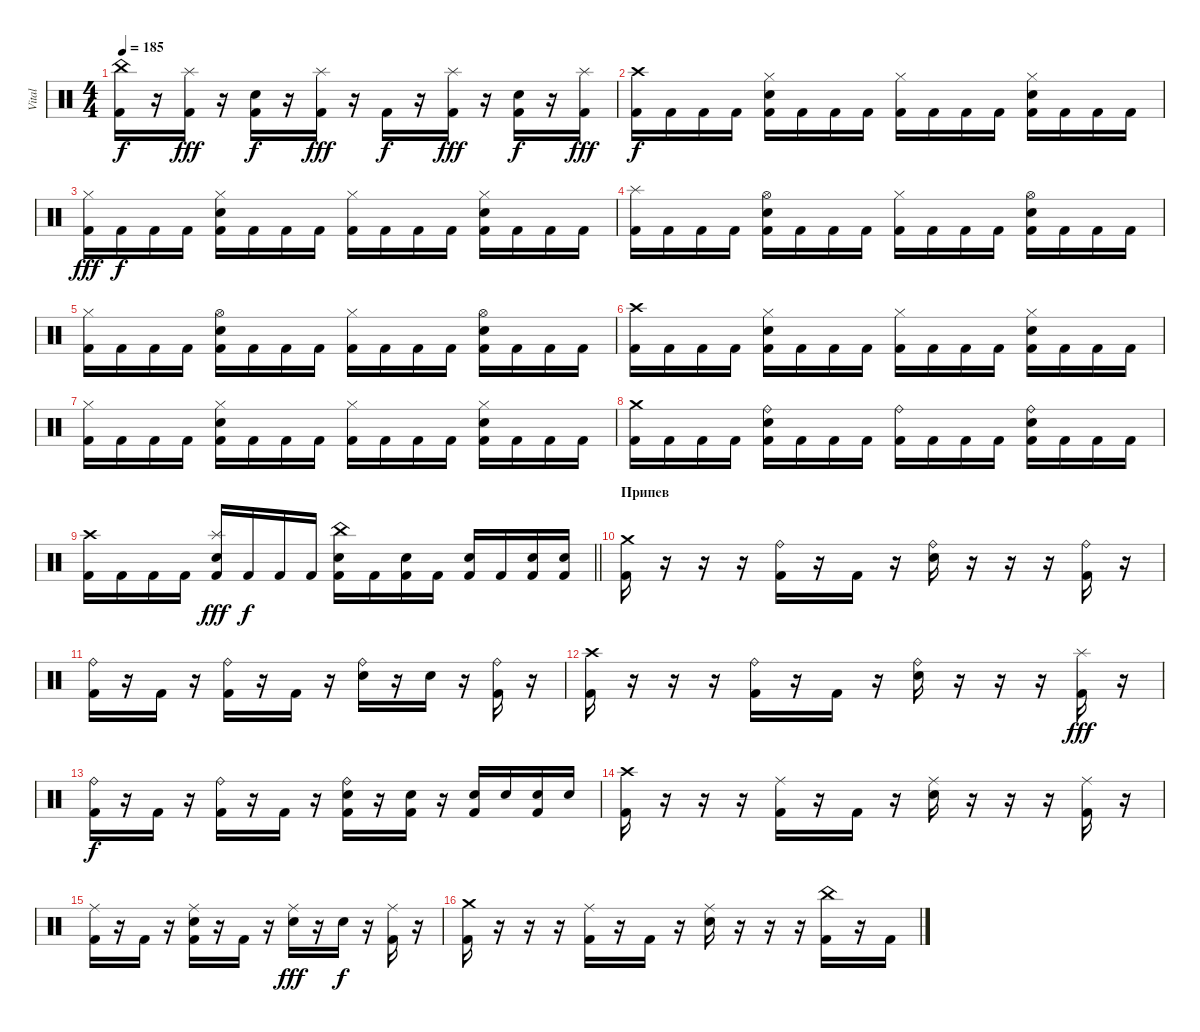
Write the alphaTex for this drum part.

\track ("Vital" "Vital") {instrument percussion}
\staff {score}
\articulation defaults
\ts (4 4)
\tempo 185
\clef neutral
\ks c
("China (hit)" "Kick (hit) 2").16{dy f} r.16 ("Splash (hit)" "Kick (hit) 2").16{dy fff} r.16 ("Snare (hit) 2" "Kick (hit) 2").16{dy f} r.16 ("Splash (hit)" "Kick (hit) 2").16{dy fff} r.16 "Kick (hit) 2".16{dy f} r.16 ("Splash (hit)" "Kick (hit) 2").16{dy fff} r.16 ("Snare (hit) 2" "Kick (hit) 2").16{dy f} r.16 ("Splash (hit)" "Kick (hit) 2").16{dy fff} |
("Crash high (hit)" "Kick (hit) 2").16{dy f} "Kick (hit) 2".16 "Kick (hit) 2".16 "Kick (hit) 2".16 ("Hi-Hat (closed)" "Snare (hit) 2" "Kick (hit) 2").16 "Kick (hit) 2".16 "Kick (hit) 2".16 "Kick (hit) 2".16 ("Hi-Hat (closed)" "Kick (hit) 2").16 "Kick (hit) 2".16 "Kick (hit) 2".16 "Kick (hit) 2".16 ("Hi-Hat (closed)" "Snare (hit) 2" "Kick (hit) 2").16 "Kick (hit) 2".16 "Kick (hit) 2".16 "Kick (hit) 2".16 |
("Hi-Hat (closed)" "Kick (hit) 2").16{dy fff} "Kick (hit) 2".16{dy f} "Kick (hit) 2".16 "Kick (hit) 2".16 ("Hi-Hat (closed)" "Snare (hit) 2" "Kick (hit) 2").16 "Kick (hit) 2".16 "Kick (hit) 2".16 "Kick (hit) 2".16 ("Hi-Hat (closed)" "Kick (hit) 2").16 "Kick (hit) 2".16 "Kick (hit) 2".16 "Kick (hit) 2".16 ("Hi-Hat (closed)" "Snare (hit) 2" "Kick (hit) 2").16 "Kick (hit) 2".16 "Kick (hit) 2".16 "Kick (hit) 2".16 |
("Splash (hit)" "Kick (hit) 2").16 "Kick (hit) 2".16 "Kick (hit) 2".16 "Kick (hit) 2".16 ("Hi-Hat (open)" "Snare (hit) 2" "Kick (hit) 2").16 "Kick (hit) 2".16 "Kick (hit) 2".16 "Kick (hit) 2".16 ("Hi-Hat (closed)" "Kick (hit) 2").16 "Kick (hit) 2".16 "Kick (hit) 2".16 "Kick (hit) 2".16 ("Hi-Hat (open)" "Snare (hit) 2" "Kick (hit) 2").16 "Kick (hit) 2".16 "Kick (hit) 2".16 "Kick (hit) 2".16 |
("Hi-Hat (closed)" "Kick (hit) 2").16 "Kick (hit) 2".16 "Kick (hit) 2".16 "Kick (hit) 2".16 ("Hi-Hat (open)" "Snare (hit) 2" "Kick (hit) 2").16 "Kick (hit) 2".16 "Kick (hit) 2".16 "Kick (hit) 2".16 ("Hi-Hat (closed)" "Kick (hit) 2").16 "Kick (hit) 2".16 "Kick (hit) 2".16 "Kick (hit) 2".16 ("Hi-Hat (open)" "Snare (hit) 2" "Kick (hit) 2").16 "Kick (hit) 2".16 "Kick (hit) 2".16 "Kick (hit) 2".16 |
("Crash high (hit)" "Kick (hit) 2").16 "Kick (hit) 2".16 "Kick (hit) 2".16 "Kick (hit) 2".16 ("Hi-Hat (closed)" "Snare (hit) 2" "Kick (hit) 2").16 "Kick (hit) 2".16 "Kick (hit) 2".16 "Kick (hit) 2".16 ("Hi-Hat (closed)" "Kick (hit) 2").16 "Kick (hit) 2".16 "Kick (hit) 2".16 "Kick (hit) 2".16 ("Hi-Hat (closed)" "Snare (hit) 2" "Kick (hit) 2").16 "Kick (hit) 2".16 "Kick (hit) 2".16 "Kick (hit) 2".16 |
("Hi-Hat (closed)" "Kick (hit) 2").16 "Kick (hit) 2".16 "Kick (hit) 2".16 "Kick (hit) 2".16 ("Hi-Hat (closed)" "Snare (hit) 2" "Kick (hit) 2").16 "Kick (hit) 2".16 "Kick (hit) 2".16 "Kick (hit) 2".16 ("Hi-Hat (closed)" "Kick (hit) 2").16 "Kick (hit) 2".16 "Kick (hit) 2".16 "Kick (hit) 2".16 ("Hi-Hat (closed)" "Snare (hit) 2" "Kick (hit) 2").16 "Kick (hit) 2".16 "Kick (hit) 2".16 "Kick (hit) 2".16 |
("Crash medium (hit)" "Kick (hit) 2").16 "Kick (hit) 2".16 "Kick (hit) 2".16 "Kick (hit) 2".16 ("Ride (bell)" "Snare (hit) 2" "Kick (hit) 2").16 "Kick (hit) 2".16 "Kick (hit) 2".16 "Kick (hit) 2".16 ("Ride (bell)" "Kick (hit) 2").16 "Kick (hit) 2".16 "Kick (hit) 2".16 "Kick (hit) 2".16 ("Ride (bell)" "Snare (hit) 2" "Kick (hit) 2").16 "Kick (hit) 2".16 "Kick (hit) 2".16 "Kick (hit) 2".16 |
\barLineRight lightlight
("Crash high (hit)" "Kick (hit) 2").16 "Kick (hit) 2".16 "Kick (hit) 2".16 "Kick (hit) 2".16 ("Splash (hit)" "Snare (hit) 2" "Kick (hit) 2").16{dy fff} "Kick (hit) 2".16{dy f} "Kick (hit) 2".16 "Kick (hit) 2".16 ("China (hit)" "Snare (hit) 2" "Kick (hit) 2").16 "Kick (hit) 2".16 ("Snare (hit) 2" "Kick (hit) 2").16 "Kick (hit) 2".16 ("Snare (hit) 2" "Kick (hit) 2").16 "Kick (hit) 2".16 ("Snare (hit) 2" "Kick (hit) 2").16 ("Snare (hit) 2" "Kick (hit) 2").16 |
\section ("" "Припев")
("Crash medium (hit)" "Kick (hit) 2").16 r.16 r.16 r.16 ("Ride (bell)" "Kick (hit) 2").16 r.16 "Kick (hit) 2".16 r.16 ("Ride (bell)" "Snare (hit) 2").16 r.16 r.16 r.16 ("Ride (bell)" "Kick (hit) 2").16 r.16 |
("Ride (bell)" "Kick (hit) 2").16 r.16 "Kick (hit) 2".16 r.16 ("Ride (bell)" "Kick (hit) 2").16 r.16 "Kick (hit) 2".16 r.16 ("Ride (bell)" "Snare (hit) 2").16 r.16 "Snare (hit) 2".16 r.16 ("Ride (bell)" "Kick (hit) 2").16 r.16 |
("Crash high (hit)" "Kick (hit) 2").16 r.16 r.16 r.16 ("Ride (bell)" "Kick (hit) 2").16 r.16 "Kick (hit) 2".16 r.16 ("Ride (bell)" "Snare (hit) 2").16 r.16 r.16 r.16 ("Splash (hit)" "Kick (hit) 2").16{dy fff} r.16 |
("Ride (bell)" "Kick (hit) 2").16{dy f} r.16 "Kick (hit) 2".16 r.16 ("Ride (bell)" "Kick (hit) 2").16 r.16 "Kick (hit) 2".16 r.16 ("Ride (bell)" "Snare (hit) 2" "Kick (hit) 2").16 r.16 ("Snare (hit) 2" "Kick (hit) 2").16 r.16 ("Snare (hit) 2" "Kick (hit) 2").16 "Snare (hit) 2".16 ("Snare (hit) 2" "Kick (hit) 2").16 "Snare (hit) 2".16 |
("Crash high (hit)" "Kick (hit) 2").16 r.16 r.16 r.16 ("Ride (middle)" "Kick (hit) 2").16 r.16 "Kick (hit) 2".16 r.16 ("Ride (middle)" "Snare (hit) 2").16 r.16 r.16 r.16 ("Ride (middle)" "Kick (hit) 2").16 r.16 |
("Ride (middle)" "Kick (hit) 2").16 r.16 "Kick (hit) 2".16 r.16 ("Ride (middle)" "Snare (hit) 2" "Kick (hit) 2").16 r.16 "Kick (hit) 2".16 r.16 ("Ride (middle)" "Snare (hit) 2").16{dy fff} r.16 "Snare (hit) 2".16{dy f} r.16 ("Ride (middle)" "Kick (hit) 2").16 r.16 |
("Crash medium (hit)" "Kick (hit) 2").16 r.16 r.16 r.16 ("Ride (middle)" "Kick (hit) 2").16 r.16 "Kick (hit) 2".16 r.16 ("Ride (middle)" "Snare (hit) 2").16 r.16 r.16 r.16 ("China (hit)" "Kick (hit) 2").16 r.16 "Kick (hit) 2".16
